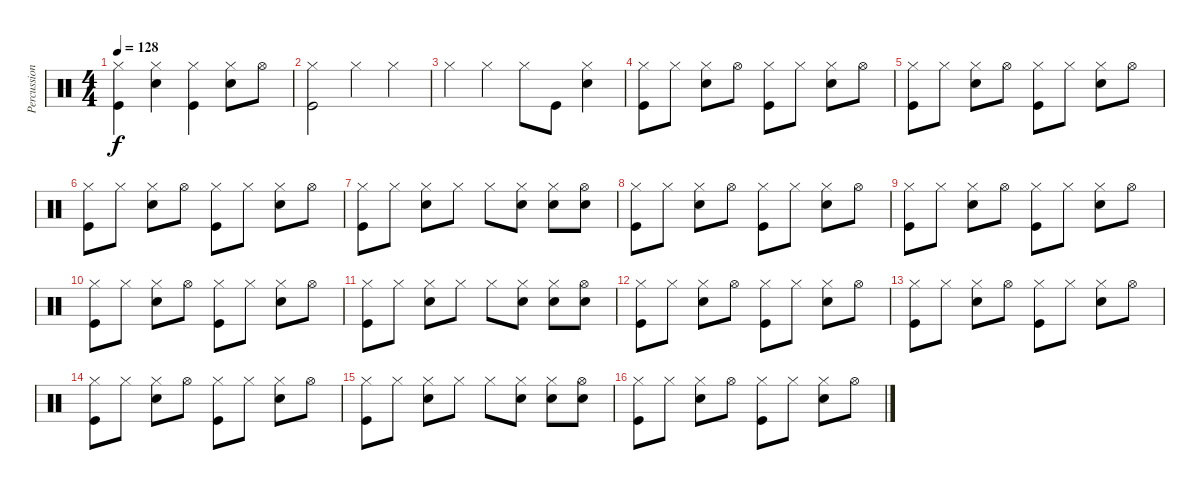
\track ("Percussion" "Percussion") {instrument percussion}
\staff {score}
\articulation defaults
\ts (4 4)
\tempo 128
\clef neutral
\ks c
("Hi-Hat (closed)" "Kick (hit)").4{dy f} ("Hi-Hat (closed)" "Snare (hit) 2").4 ("Hi-Hat (closed)" "Kick (hit)").4 ("Hi-Hat (closed)" "Snare (hit) 2").8 "Hi-Hat (open)".8 |
("Hi-Hat (closed)" "Kick (hit)").2 "Hi-Hat (closed)".4 "Hi-Hat (closed)".4 |
"Hi-Hat (closed)".4 "Hi-Hat (closed)".4 "Hi-Hat (closed)".8 "Kick (hit)".8 ("Hi-Hat (closed)" "Snare (hit) 2").4 |
("Hi-Hat (closed)" "Kick (hit)").8 "Hi-Hat (closed)".8 ("Hi-Hat (closed)" "Snare (hit) 2").8 "Hi-Hat (open)".8 ("Hi-Hat (closed)" "Kick (hit)").8 "Hi-Hat (closed)".8 ("Hi-Hat (closed)" "Snare (hit) 2").8 "Hi-Hat (open)".8 |
("Hi-Hat (closed)" "Kick (hit)").8 "Hi-Hat (closed)".8 ("Hi-Hat (closed)" "Snare (hit) 2").8 "Hi-Hat (open)".8 ("Hi-Hat (closed)" "Kick (hit)").8 "Hi-Hat (closed)".8 ("Hi-Hat (closed)" "Snare (hit) 2").8 "Hi-Hat (open)".8 |
("Hi-Hat (closed)" "Kick (hit)").8 "Hi-Hat (closed)".8 ("Hi-Hat (closed)" "Snare (hit) 2").8 "Hi-Hat (open)".8 ("Hi-Hat (closed)" "Kick (hit)").8 "Hi-Hat (closed)".8 ("Hi-Hat (closed)" "Snare (hit) 2").8 "Hi-Hat (open)".8 |
("Hi-Hat (closed)" "Kick (hit)").8 "Hi-Hat (closed)".8 ("Hi-Hat (closed)" "Snare (hit) 2").8 "Hi-Hat (closed)".8 "Hi-Hat (closed)".8 ("Hi-Hat (closed)" "Snare (hit) 2").8 ("Hi-Hat (closed)" "Snare (hit) 2").8 ("Hi-Hat (open)" "Snare (hit) 2").8 |
("Hi-Hat (closed)" "Kick (hit)").8 "Hi-Hat (closed)".8 ("Hi-Hat (closed)" "Snare (hit) 2").8 "Hi-Hat (open)".8 ("Hi-Hat (closed)" "Kick (hit)").8 "Hi-Hat (closed)".8 ("Hi-Hat (closed)" "Snare (hit) 2").8 "Hi-Hat (open)".8 |
("Hi-Hat (closed)" "Kick (hit)").8 "Hi-Hat (closed)".8 ("Hi-Hat (closed)" "Snare (hit) 2").8 "Hi-Hat (open)".8 ("Hi-Hat (closed)" "Kick (hit)").8 "Hi-Hat (closed)".8 ("Hi-Hat (closed)" "Snare (hit) 2").8 "Hi-Hat (open)".8 |
("Hi-Hat (closed)" "Kick (hit)").8 "Hi-Hat (closed)".8 ("Hi-Hat (closed)" "Snare (hit) 2").8 "Hi-Hat (open)".8 ("Hi-Hat (closed)" "Kick (hit)").8 "Hi-Hat (closed)".8 ("Hi-Hat (closed)" "Snare (hit) 2").8 "Hi-Hat (open)".8 |
("Hi-Hat (closed)" "Kick (hit)").8 "Hi-Hat (closed)".8 ("Hi-Hat (closed)" "Snare (hit) 2").8 "Hi-Hat (closed)".8 "Hi-Hat (closed)".8 ("Hi-Hat (closed)" "Snare (hit) 2").8 ("Hi-Hat (closed)" "Snare (hit) 2").8 ("Hi-Hat (open)" "Snare (hit) 2").8 |
("Hi-Hat (closed)" "Kick (hit)").8 "Hi-Hat (closed)".8 ("Hi-Hat (closed)" "Snare (hit) 2").8 "Hi-Hat (open)".8 ("Hi-Hat (closed)" "Kick (hit)").8 "Hi-Hat (closed)".8 ("Hi-Hat (closed)" "Snare (hit) 2").8 "Hi-Hat (open)".8 |
("Hi-Hat (closed)" "Kick (hit)").8 "Hi-Hat (closed)".8 ("Hi-Hat (closed)" "Snare (hit) 2").8 "Hi-Hat (open)".8 ("Hi-Hat (closed)" "Kick (hit)").8 "Hi-Hat (closed)".8 ("Hi-Hat (closed)" "Snare (hit) 2").8 "Hi-Hat (open)".8 |
("Hi-Hat (closed)" "Kick (hit)").8 "Hi-Hat (closed)".8 ("Hi-Hat (closed)" "Snare (hit) 2").8 "Hi-Hat (open)".8 ("Hi-Hat (closed)" "Kick (hit)").8 "Hi-Hat (closed)".8 ("Hi-Hat (closed)" "Snare (hit) 2").8 "Hi-Hat (open)".8 |
("Hi-Hat (closed)" "Kick (hit)").8 "Hi-Hat (closed)".8 ("Hi-Hat (closed)" "Snare (hit) 2").8 "Hi-Hat (closed)".8 "Hi-Hat (closed)".8 ("Hi-Hat (closed)" "Snare (hit) 2").8 ("Hi-Hat (closed)" "Snare (hit) 2").8 ("Hi-Hat (open)" "Snare (hit) 2").8 |
("Hi-Hat (closed)" "Kick (hit)").8 "Hi-Hat (closed)".8 ("Hi-Hat (closed)" "Snare (hit) 2").8 "Hi-Hat (open)".8 ("Hi-Hat (closed)" "Kick (hit)").8 "Hi-Hat (closed)".8 ("Hi-Hat (closed)" "Snare (hit) 2").8 "Hi-Hat (open)".8
